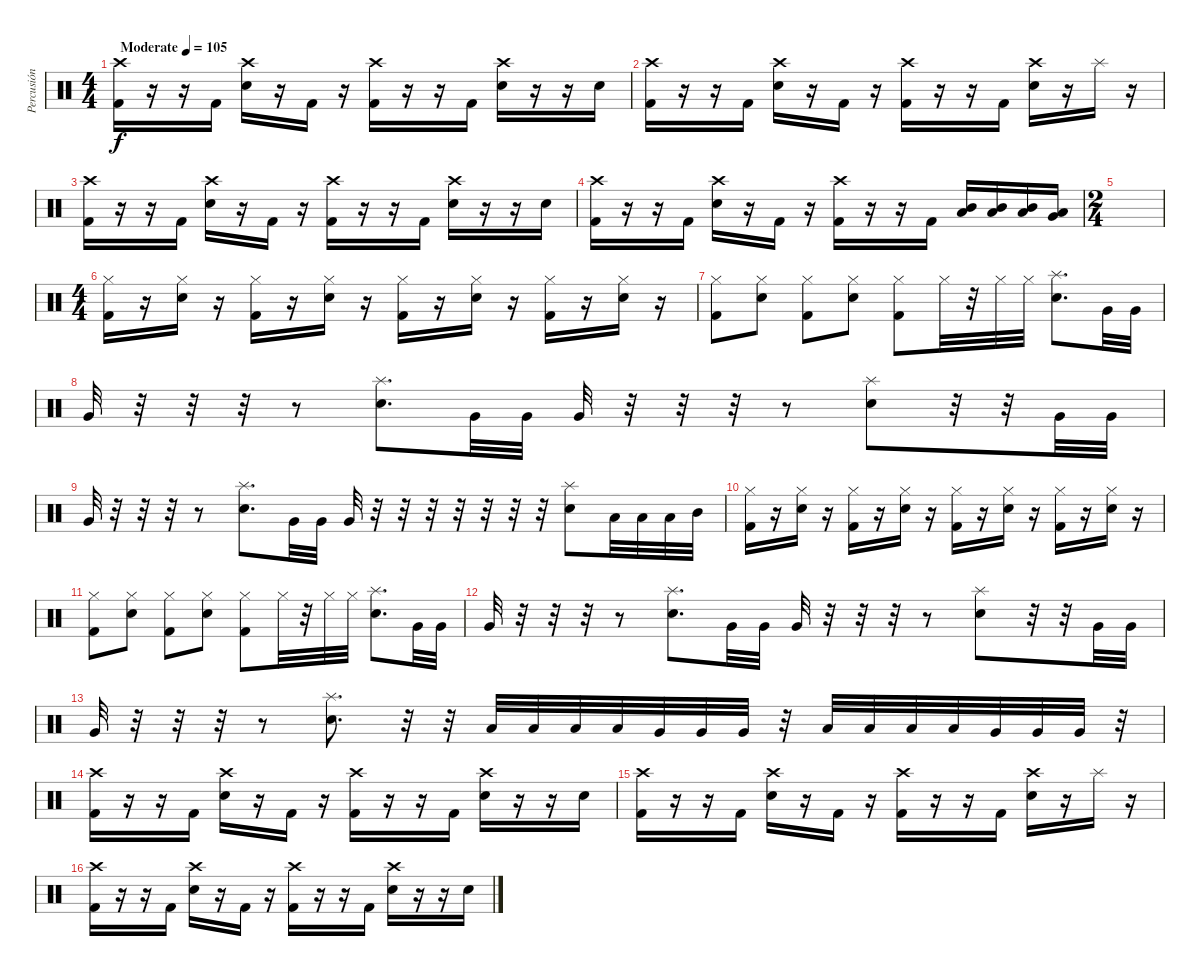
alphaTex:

\track ("Percusión" "Percusión") {instrument percussion}
\staff {score}
\articulation defaults
\ts (4 4)
\tempo (105 "Moderate")
\clef neutral
\ks c
("Crash high (hit)" "Kick (hit) 2").16{dy f} r.16 r.16 "Kick (hit) 2".16 ("Crash high (hit)" "Electric Snare (hit)").16 r.16 "Kick (hit) 2".16 r.16 ("Crash high (hit)" "Kick (hit) 2").16 r.16 r.16 "Kick (hit) 2".16 ("Crash high (hit)" "Electric Snare (hit)").16 r.16 r.16 "Electric Snare (hit)".16 |
("Crash high (hit)" "Kick (hit) 2").16 r.16 r.16 "Kick (hit) 2".16 ("Crash high (hit)" "Electric Snare (hit)").16 r.16 "Kick (hit) 2".16 r.16 ("Crash high (hit)" "Kick (hit) 2").16 r.16 r.16 "Kick (hit) 2".16 ("Crash high (hit)" "Electric Snare (hit)").16 r.16 "Splash (hit)".16 r.16 |
("Crash high (hit)" "Kick (hit) 2").16 r.16 r.16 "Kick (hit) 2".16 ("Crash high (hit)" "Electric Snare (hit)").16 r.16 "Kick (hit) 2".16 r.16 ("Crash high (hit)" "Kick (hit) 2").16 r.16 r.16 "Kick (hit) 2".16 ("Crash high (hit)" "Electric Snare (hit)").16 r.16 r.16 "Electric Snare (hit)".16 |
("Crash high (hit)" "Kick (hit) 2").16 r.16 r.16 "Kick (hit) 2".16 ("Crash high (hit)" "Electric Snare (hit)").16 r.16 "Kick (hit) 2".16 r.16 ("Crash high (hit)" "Kick (hit) 2").16 r.16 r.16 "Kick (hit) 2".16 ("Low Tom (hit)" "Mid Tom (hit)").16 ("Low Tom (hit)" "Mid Tom (hit)").16 ("Low Tom (hit)" "Mid Tom (hit)").16 ("Very Low Tom (hit)" "Low Tom (hit)").16 |
\ts (2 4)
|
\ts (4 4)
("Hi-Hat (closed)" "Kick (hit) 2").16 r.16 ("Hi-Hat (closed)" "Electric Snare (hit)").16 r.16 ("Hi-Hat (closed)" "Kick (hit) 2").16 r.16 ("Hi-Hat (closed)" "Electric Snare (hit)").16 r.16 ("Hi-Hat (closed)" "Kick (hit) 2").16 r.16 ("Hi-Hat (closed)" "Electric Snare (hit)").16 r.16 ("Hi-Hat (closed)" "Kick (hit) 2").16 r.16 ("Hi-Hat (closed)" "Electric Snare (hit)").16 r.16 |
("Hi-Hat (closed)" "Kick (hit) 2").8 ("Hi-Hat (closed)" "Electric Snare (hit)").8 ("Hi-Hat (closed)" "Kick (hit) 2").8 ("Hi-Hat (closed)" "Electric Snare (hit)").8 ("Hi-Hat (closed)" "Kick (hit) 2").8 "Hi-Hat (closed)".32 r.32 "Hi-Hat (closed)".32 "Hi-Hat (closed)".32 ("Splash (hit)" "Electric Snare (hit)").8{d} "Very Low Tom (hit)".32 "Very Low Tom (hit)".32 |
"Very Low Tom (hit)".32 r.32 r.32 r.32 r.8 ("Electric Snare (hit)" "Splash (hit)").8{d} "Very Low Tom (hit)".32 "Very Low Tom (hit)".32 "Very Low Tom (hit)".32 r.32 r.32 r.32 r.8 ("Electric Snare (hit)" "Splash (hit)").8 r.32 r.32 "Very Low Tom (hit)".32 "Very Low Tom (hit)".32 |
"Very Low Tom (hit)".32 r.32 r.32 r.32 r.8 ("Electric Snare (hit)" "Splash (hit)").8{d} "Very Low Tom (hit)".32 "Very Low Tom (hit)".32 "Very Low Tom (hit)".32 r.32 r.32 r.32 r.32 r.32 r.32 r.32 ("Electric Snare (hit)" "Splash (hit)").8 "Low Tom (hit)".32 "Low Tom (hit)".32 "Low Tom (hit)".32 "Mid Tom (hit)".32 |
("Hi-Hat (closed)" "Kick (hit) 2").16 r.16 ("Hi-Hat (closed)" "Electric Snare (hit)").16 r.16 ("Hi-Hat (closed)" "Kick (hit) 2").16 r.16 ("Hi-Hat (closed)" "Electric Snare (hit)").16 r.16 ("Hi-Hat (closed)" "Kick (hit) 2").16 r.16 ("Hi-Hat (closed)" "Electric Snare (hit)").16 r.16 ("Hi-Hat (closed)" "Kick (hit) 2").16 r.16 ("Hi-Hat (closed)" "Electric Snare (hit)").16 r.16 |
("Hi-Hat (closed)" "Kick (hit) 2").8 ("Hi-Hat (closed)" "Electric Snare (hit)").8 ("Hi-Hat (closed)" "Kick (hit) 2").8 ("Hi-Hat (closed)" "Electric Snare (hit)").8 ("Hi-Hat (closed)" "Kick (hit) 2").8 "Hi-Hat (closed)".32 r.32 "Hi-Hat (closed)".32 "Hi-Hat (closed)".32 ("Splash (hit)" "Electric Snare (hit)").8{d} "Very Low Tom (hit)".32 "Very Low Tom (hit)".32 |
"Very Low Tom (hit)".32 r.32 r.32 r.32 r.8 ("Electric Snare (hit)" "Splash (hit)").8{d} "Very Low Tom (hit)".32 "Very Low Tom (hit)".32 "Very Low Tom (hit)".32 r.32 r.32 r.32 r.8 ("Electric Snare (hit)" "Splash (hit)").8 r.32 r.32 "Very Low Tom (hit)".32 "Very Low Tom (hit)".32 |
"Very Low Tom (hit)".32 r.32 r.32 r.32 r.8 ("Electric Snare (hit)" "Splash (hit)").8{d} r.32 r.32 "Low Tom (hit)".32 "Low Tom (hit)".32 "Low Tom (hit)".32 "Low Tom (hit)".32 "Very Low Tom (hit)".32 "Very Low Tom (hit)".32 "Very Low Tom (hit)".32 r.32 "Low Tom (hit)".32 "Low Tom (hit)".32 "Low Tom (hit)".32 "Low Tom (hit)".32 "Very Low Tom (hit)".32 "Very Low Tom (hit)".32 "Very Low Tom (hit)".32 r.32 |
("Crash high (hit)" "Kick (hit) 2").16 r.16 r.16 "Kick (hit) 2".16 ("Crash high (hit)" "Electric Snare (hit)").16 r.16 "Kick (hit) 2".16 r.16 ("Crash high (hit)" "Kick (hit) 2").16 r.16 r.16 "Kick (hit) 2".16 ("Crash high (hit)" "Electric Snare (hit)").16 r.16 r.16 "Electric Snare (hit)".16 |
("Crash high (hit)" "Kick (hit) 2").16 r.16 r.16 "Kick (hit) 2".16 ("Crash high (hit)" "Electric Snare (hit)").16 r.16 "Kick (hit) 2".16 r.16 ("Crash high (hit)" "Kick (hit) 2").16 r.16 r.16 "Kick (hit) 2".16 ("Crash high (hit)" "Electric Snare (hit)").16 r.16 "Splash (hit)".16 r.16 |
("Crash high (hit)" "Kick (hit) 2").16 r.16 r.16 "Kick (hit) 2".16 ("Crash high (hit)" "Electric Snare (hit)").16 r.16 "Kick (hit) 2".16 r.16 ("Crash high (hit)" "Kick (hit) 2").16 r.16 r.16 "Kick (hit) 2".16 ("Crash high (hit)" "Electric Snare (hit)").16 r.16 r.16 "Electric Snare (hit)".16
